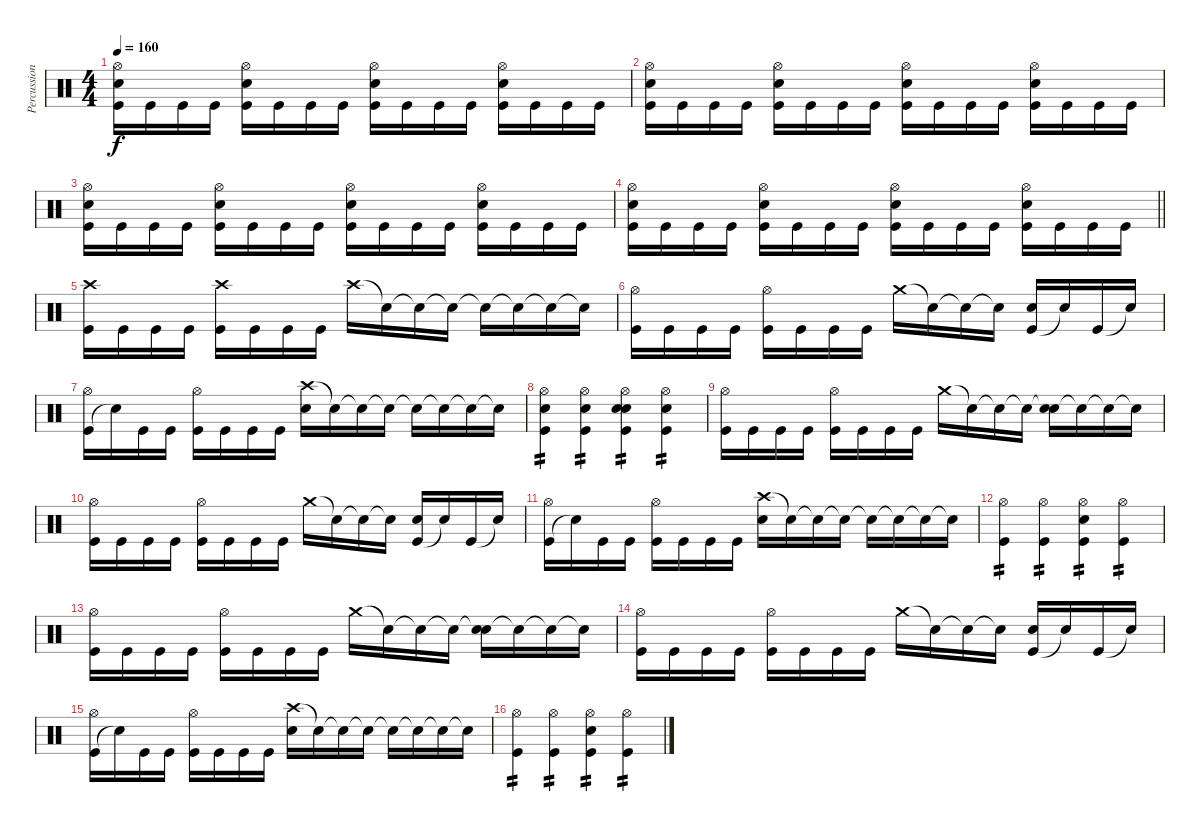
\track ("Percussion" "Percussion") {instrument percussion}
\staff {score}
\articulation defaults
\ts (4 4)
\tempo 160
\clef neutral
\ks c
("Kick (hit)" "Snare (hit) 2" "Hi-Hat (open)").16{dy f} "Kick (hit)".16 "Kick (hit)".16 "Kick (hit)".16 ("Kick (hit)" "Snare (hit) 2" "Hi-Hat (open)").16 "Kick (hit)".16 "Kick (hit)".16 "Kick (hit)".16 ("Kick (hit)" "Snare (hit) 2" "Hi-Hat (open)").16 "Kick (hit)".16 "Kick (hit)".16 "Kick (hit)".16 ("Kick (hit)" "Snare (hit) 2" "Hi-Hat (open)").16 "Kick (hit)".16 "Kick (hit)".16 "Kick (hit)".16 |
("Kick (hit)" "Snare (hit) 2" "Hi-Hat (open)").16 "Kick (hit)".16 "Kick (hit)".16 "Kick (hit)".16 ("Kick (hit)" "Snare (hit) 2" "Hi-Hat (open)").16 "Kick (hit)".16 "Kick (hit)".16 "Kick (hit)".16 ("Kick (hit)" "Snare (hit) 2" "Hi-Hat (open)").16 "Kick (hit)".16 "Kick (hit)".16 "Kick (hit)".16 ("Kick (hit)" "Snare (hit) 2" "Hi-Hat (open)").16 "Kick (hit)".16 "Kick (hit)".16 "Kick (hit)".16 |
("Kick (hit)" "Snare (hit) 2" "Hi-Hat (open)").16 "Kick (hit)".16 "Kick (hit)".16 "Kick (hit)".16 ("Kick (hit)" "Snare (hit) 2" "Hi-Hat (open)").16 "Kick (hit)".16 "Kick (hit)".16 "Kick (hit)".16 ("Kick (hit)" "Snare (hit) 2" "Hi-Hat (open)").16 "Kick (hit)".16 "Kick (hit)".16 "Kick (hit)".16 ("Kick (hit)" "Snare (hit) 2" "Hi-Hat (open)").16 "Kick (hit)".16 "Kick (hit)".16 "Kick (hit)".16 |
\barLineRight lightlight
("Kick (hit)" "Snare (hit) 2" "Hi-Hat (open)").16 "Kick (hit)".16 "Kick (hit)".16 "Kick (hit)".16 ("Kick (hit)" "Snare (hit) 2" "Hi-Hat (open)").16 "Kick (hit)".16 "Kick (hit)".16 "Kick (hit)".16 ("Kick (hit)" "Snare (hit) 2" "Hi-Hat (open)").16 "Kick (hit)".16 "Kick (hit)".16 "Kick (hit)".16 ("Kick (hit)" "Snare (hit) 2" "Hi-Hat (open)").16 "Kick (hit)".16 "Kick (hit)".16 "Kick (hit)".16 |
\section ("" "")
("Kick (hit)" "Crash high (hit)").16 "Kick (hit)".16 "Kick (hit)".16 "Kick (hit)".16 ("Kick (hit)" "Crash high (hit)").16 "Kick (hit)".16 "Kick (hit)".16 "Kick (hit)".16 "Crash high (hit)".16 "Snare (hit)"{t}.16 "Snare (hit)"{t}.16 "Snare (hit)"{t}.16 "Snare (hit)"{t}.16 "Snare (hit)"{t}.16 "Snare (hit)"{t}.16 "Snare (hit)"{t}.16 |
("Kick (hit)" "Hi-Hat (open)").16 "Kick (hit)".16 "Kick (hit)".16 "Kick (hit)".16 ("Kick (hit)" "Hi-Hat (open)").16 "Kick (hit)".16 "Kick (hit)".16 "Kick (hit)".16 "Crash medium (hit)".16 "Snare (hit)"{t}.16 "Snare (hit)"{t}.16 "Snare (hit)"{t}.16 ("Kick (hit)" "Snare (hit) 2").16 "Snare (hit)"{t}.16 "Kick (hit)".16 "Snare (hit)"{t}.16 |
("Kick (hit)" "Hi-Hat (open)").16 "Snare (hit)"{t}.16 "Kick (hit)".16 "Kick (hit)".16 ("Kick (hit)" "Hi-Hat (open)").16 "Kick (hit)".16 "Kick (hit)".16 "Kick (hit)".16 ("Crash high (hit)" "Snare (hit) 2").16 "Snare (hit)"{t}.16 "Snare (hit)"{t}.16 "Snare (hit)"{t}.16 "Snare (hit)"{t}.16 "Snare (hit)"{t}.16 "Snare (hit)"{t}.16 "Snare (hit)"{t}.16 |
("Kick (hit)" "Hi-Hat (open)" "Snare (hit) 2").4{tp 2} ("Kick (hit)" "Hi-Hat (open)" "Snare (hit) 2").4{tp 2} ("Kick (hit)" "Snare (hit) 2" "Hi-Hat (open)" "Snare (hit) 2").4{tp 2} ("Kick (hit)" "Hi-Hat (open)" "Snare (hit) 2").4{tp 2} |
("Kick (hit)" "Hi-Hat (open)").16 "Kick (hit)".16 "Kick (hit)".16 "Kick (hit)".16 ("Kick (hit)" "Hi-Hat (open)").16 "Kick (hit)".16 "Kick (hit)".16 "Kick (hit)".16 "Crash medium (hit)".16 "Snare (hit)"{t}.16 "Snare (hit)"{t}.16 "Snare (hit)"{t}.16 ("Snare (hit)"{t} "Snare (hit) 2").16 "Snare (hit)"{t}.16 "Snare (hit)"{t}.16 "Snare (hit)"{t}.16 |
("Kick (hit)" "Hi-Hat (open)").16 "Kick (hit)".16 "Kick (hit)".16 "Kick (hit)".16 ("Kick (hit)" "Hi-Hat (open)").16 "Kick (hit)".16 "Kick (hit)".16 "Kick (hit)".16 "Crash medium (hit)".16 "Snare (hit)"{t}.16 "Snare (hit)"{t}.16 "Snare (hit)"{t}.16 ("Kick (hit)" "Snare (hit) 2").16 "Snare (hit)"{t}.16 "Kick (hit)".16 "Snare (hit)"{t}.16 |
("Kick (hit)" "Hi-Hat (open)").16 "Snare (hit)"{t}.16 "Kick (hit)".16 "Kick (hit)".16 ("Kick (hit)" "Hi-Hat (open)").16 "Kick (hit)".16 "Kick (hit)".16 "Kick (hit)".16 ("Crash high (hit)" "Snare (hit) 2").16 "Snare (hit)"{t}.16 "Snare (hit)"{t}.16 "Snare (hit)"{t}.16 "Snare (hit)"{t}.16 "Snare (hit)"{t}.16 "Snare (hit)"{t}.16 "Snare (hit)"{t}.16 |
("Kick (hit)" "Hi-Hat (open)").4{tp 2} ("Kick (hit)" "Hi-Hat (open)").4{tp 2} ("Kick (hit)" "Snare (hit) 2" "Hi-Hat (open)").4{tp 2} ("Kick (hit)" "Hi-Hat (open)").4{tp 2} |
("Kick (hit)" "Hi-Hat (open)").16 "Kick (hit)".16 "Kick (hit)".16 "Kick (hit)".16 ("Kick (hit)" "Hi-Hat (open)").16 "Kick (hit)".16 "Kick (hit)".16 "Kick (hit)".16 "Crash medium (hit)".16 "Snare (hit)"{t}.16 "Snare (hit)"{t}.16 "Snare (hit)"{t}.16 ("Snare (hit)"{t} "Snare (hit) 2").16 "Snare (hit)"{t}.16 "Snare (hit)"{t}.16 "Snare (hit)"{t}.16 |
("Kick (hit)" "Hi-Hat (open)").16 "Kick (hit)".16 "Kick (hit)".16 "Kick (hit)".16 ("Kick (hit)" "Hi-Hat (open)").16 "Kick (hit)".16 "Kick (hit)".16 "Kick (hit)".16 "Crash medium (hit)".16 "Snare (hit)"{t}.16 "Snare (hit)"{t}.16 "Snare (hit)"{t}.16 ("Kick (hit)" "Snare (hit) 2").16 "Snare (hit)"{t}.16 "Kick (hit)".16 "Snare (hit)"{t}.16 |
("Kick (hit)" "Hi-Hat (open)").16 "Snare (hit)"{t}.16 "Kick (hit)".16 "Kick (hit)".16 ("Kick (hit)" "Hi-Hat (open)").16 "Kick (hit)".16 "Kick (hit)".16 "Kick (hit)".16 ("Crash high (hit)" "Snare (hit) 2").16 "Snare (hit)"{t}.16 "Snare (hit)"{t}.16 "Snare (hit)"{t}.16 "Snare (hit)"{t}.16 "Snare (hit)"{t}.16 "Snare (hit)"{t}.16 "Snare (hit)"{t}.16 |
("Kick (hit)" "Hi-Hat (open)").4{tp 2} ("Kick (hit)" "Hi-Hat (open)").4{tp 2} ("Kick (hit)" "Snare (hit) 2" "Hi-Hat (open)").4{tp 2} ("Kick (hit)" "Hi-Hat (open)").4{tp 2}
